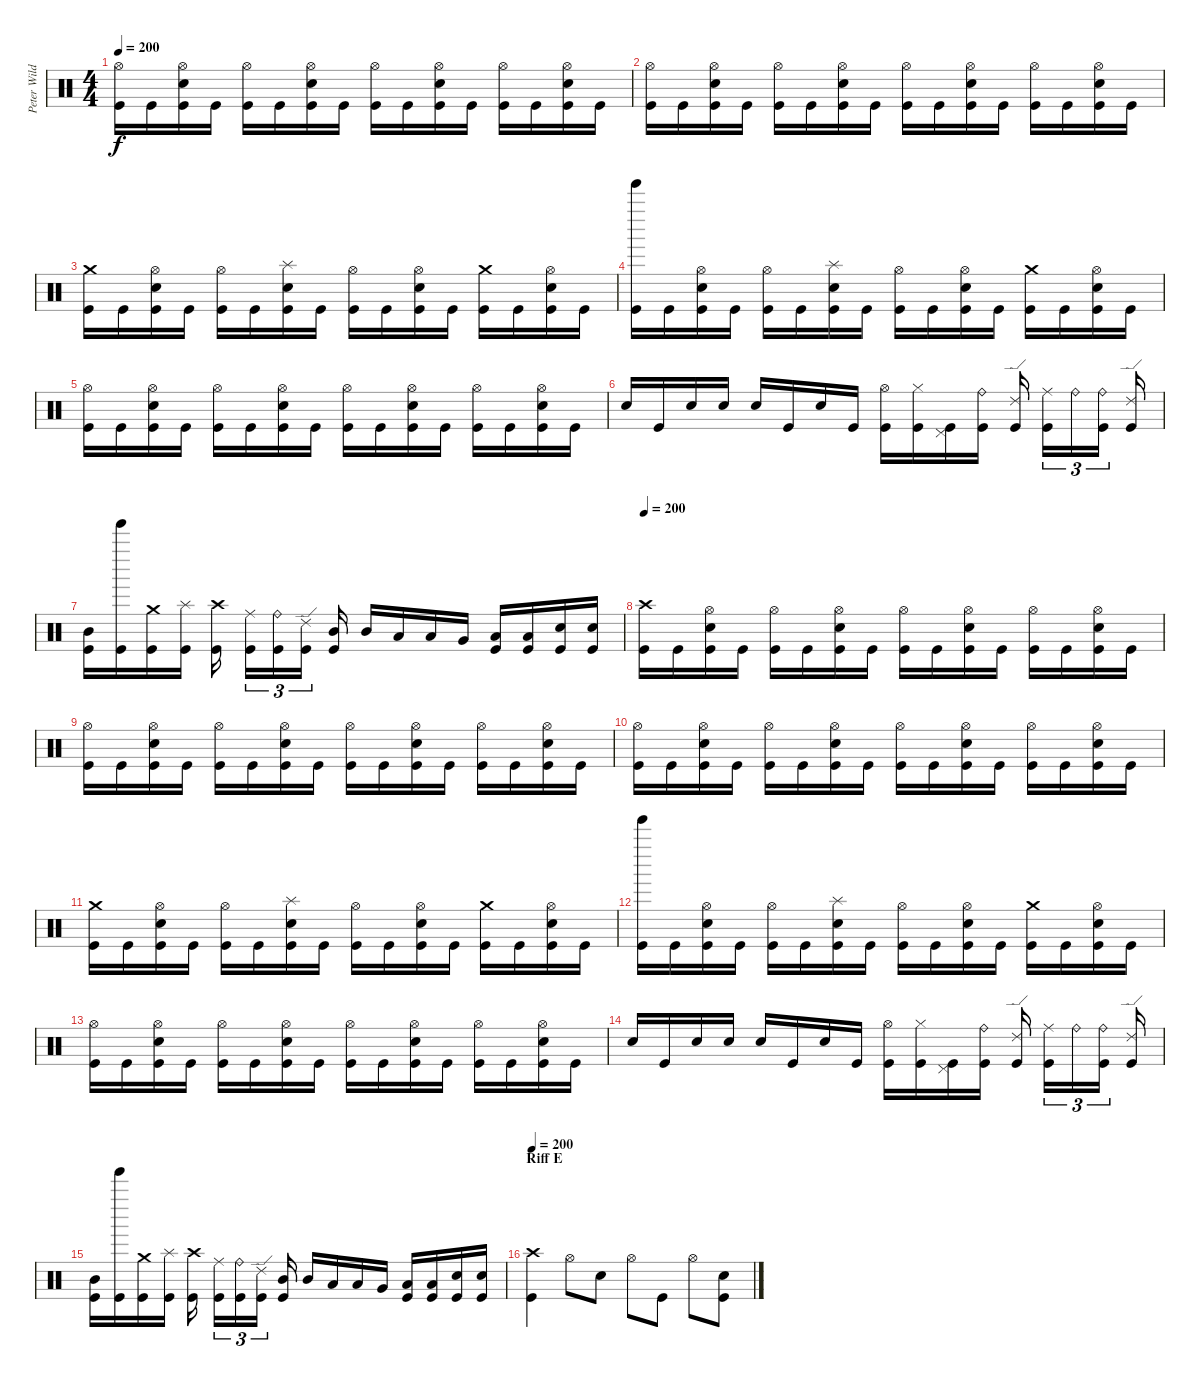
\track ("Peter Wildoer " "Peter Wild") {instrument percussion}
\staff {score}
\articulation defaults
\ts (4 4)
\tempo 200
\clef neutral
\ks c
("Hi-Hat (open)" "Kick (hit)").16{dy f} "Kick (hit)".16 ("Hi-Hat (open)" "Electric Snare (hit)" "Kick (hit)").16 "Kick (hit)".16 ("Hi-Hat (open)" "Kick (hit)").16 "Kick (hit)".16 ("Hi-Hat (open)" "Electric Snare (hit)" "Kick (hit)").16 "Kick (hit)".16 ("Hi-Hat (open)" "Kick (hit)").16 "Kick (hit)".16 ("Hi-Hat (open)" "Electric Snare (hit)" "Kick (hit)").16 "Kick (hit)".16 ("Hi-Hat (open)" "Kick (hit)").16 "Kick (hit)".16 ("Hi-Hat (open)" "Electric Snare (hit)" "Kick (hit)").16 "Kick (hit)".16 |
("Hi-Hat (open)" "Kick (hit)").16 "Kick (hit)".16 ("Hi-Hat (open)" "Electric Snare (hit)" "Kick (hit)").16 "Kick (hit)".16 ("Hi-Hat (open)" "Kick (hit)").16 "Kick (hit)".16 ("Hi-Hat (open)" "Electric Snare (hit)" "Kick (hit)").16 "Kick (hit)".16 ("Hi-Hat (open)" "Kick (hit)").16 "Kick (hit)".16 ("Hi-Hat (open)" "Electric Snare (hit)" "Kick (hit)").16 "Kick (hit)".16 ("Hi-Hat (open)" "Kick (hit)").16 "Kick (hit)".16 ("Hi-Hat (open)" "Electric Snare (hit)" "Kick (hit)").16 "Kick (hit)".16 |
("Crash medium (hit)" "Kick (hit)").16 "Kick (hit)".16 ("Hi-Hat (open)" "Electric Snare (hit)" "Kick (hit)").16 "Kick (hit)".16 ("Hi-Hat (open)" "Kick (hit)").16 "Kick (hit)".16 ("Splash (hit)" "Electric Snare (hit)" "Kick (hit)").16 "Kick (hit)".16 ("Hi-Hat (open)" "Kick (hit)").16 "Kick (hit)".16 ("Hi-Hat (open)" "Electric Snare (hit)" "Kick (hit)").16 "Kick (hit)".16 ("Crash medium (hit)" "Kick (hit)").16 "Kick (hit)".16 ("Hi-Hat (open)" "Electric Snare (hit)" "Kick (hit)").16 "Kick (hit)".16 |
("Tinkle Bell (hit)" "Kick (hit)").16 "Kick (hit)".16 ("Hi-Hat (open)" "Electric Snare (hit)" "Kick (hit)").16 "Kick (hit)".16 ("Hi-Hat (open)" "Kick (hit)").16 "Kick (hit)".16 ("Splash (hit)" "Electric Snare (hit)" "Kick (hit)").16 "Kick (hit)".16 ("Hi-Hat (open)" "Kick (hit)").16 "Kick (hit)".16 ("Hi-Hat (open)" "Electric Snare (hit)" "Kick (hit)").16 "Kick (hit)".16 ("Crash medium (hit)" "Kick (hit)").16 "Kick (hit)".16 ("Hi-Hat (open)" "Electric Snare (hit)" "Kick (hit)").16 "Kick (hit)".16 |
("Hi-Hat (open)" "Kick (hit)").16 "Kick (hit)".16 ("Hi-Hat (open)" "Electric Snare (hit)" "Kick (hit)").16 "Kick (hit)".16 ("Hi-Hat (open)" "Kick (hit)").16 "Kick (hit)".16 ("Hi-Hat (open)" "Electric Snare (hit)" "Kick (hit)").16 "Kick (hit)".16 ("Hi-Hat (open)" "Kick (hit)").16 "Kick (hit)".16 ("Hi-Hat (open)" "Electric Snare (hit)" "Kick (hit)").16 "Kick (hit)".16 ("Hi-Hat (open)" "Kick (hit)").16 "Kick (hit)".16 ("Hi-Hat (open)" "Electric Snare (hit)" "Kick (hit)").16 "Kick (hit)".16 |
"Electric Snare (hit)".16 "Kick (hit)".16 "Electric Snare (hit)".16 "Electric Snare (hit)".16 "Electric Snare (hit)".16 "Kick (hit)".16 "Electric Snare (hit)".16 "Kick (hit)".16 ("Hi-Hat (open)" "Kick (hit)").16 ("Hi-Hat (closed)" "Kick (hit)").16 ("Pedal Hi-Hat (hit)" "Kick (hit)").16 ("Ride (bell)" "Kick (hit)").16 ("Ride (edge) 2" "Kick (hit)").16 ("Ride (middle)" "Kick (hit)").16{tu (3 2)} "Ride (bell)".16{tu (3 2)} ("Ride (bell)" "Kick (hit)").16{tu (3 2)} ("Ride (edge) 2" "Kick (hit)").16 |
("Mid Tom (hit)" "Kick (hit)").16 ("Tinkle Bell (hit)" "Kick (hit)").16 ("Crash medium (hit)" "Kick (hit)").16 ("Splash (hit)" "Kick (hit)").16 ("Crash high (hit)" "Kick (hit)").16 ("Ride (middle)" "Kick (hit)").16{tu (3 2)} ("Ride (bell)" "Kick (hit)").16{tu (3 2)} ("Ride (edge) 2" "Kick (hit)").16{tu (3 2)} ("Mid Tom (hit)" "Kick (hit)").16 "Mid Tom (hit)".16 "Low Tom (hit)".16 "Low Tom (hit)".16 "Very Low Tom (hit)".16 ("Low Floor Tom (hit)" "Kick (hit)").16 ("Low Floor Tom (hit)" "Kick (hit)").16 ("Electric Snare (hit)" "Kick (hit)").16 ("Electric Snare (hit)" "Kick (hit)").16 |
\tempo 200
("Crash high (hit)" "Kick (hit)").16 "Kick (hit)".16 ("Hi-Hat (open)" "Electric Snare (hit)" "Kick (hit)").16 "Kick (hit)".16 ("Hi-Hat (open)" "Kick (hit)").16 "Kick (hit)".16 ("Hi-Hat (open)" "Electric Snare (hit)" "Kick (hit)").16 "Kick (hit)".16 ("Hi-Hat (open)" "Kick (hit)").16 "Kick (hit)".16 ("Hi-Hat (open)" "Electric Snare (hit)" "Kick (hit)").16 "Kick (hit)".16 ("Hi-Hat (open)" "Kick (hit)").16 "Kick (hit)".16 ("Hi-Hat (open)" "Electric Snare (hit)" "Kick (hit)").16 "Kick (hit)".16 |
("Hi-Hat (open)" "Kick (hit)").16 "Kick (hit)".16 ("Hi-Hat (open)" "Electric Snare (hit)" "Kick (hit)").16 "Kick (hit)".16 ("Hi-Hat (open)" "Kick (hit)").16 "Kick (hit)".16 ("Hi-Hat (open)" "Electric Snare (hit)" "Kick (hit)").16 "Kick (hit)".16 ("Hi-Hat (open)" "Kick (hit)").16 "Kick (hit)".16 ("Hi-Hat (open)" "Electric Snare (hit)" "Kick (hit)").16 "Kick (hit)".16 ("Hi-Hat (open)" "Kick (hit)").16 "Kick (hit)".16 ("Hi-Hat (open)" "Electric Snare (hit)" "Kick (hit)").16 "Kick (hit)".16 |
("Hi-Hat (open)" "Kick (hit)").16 "Kick (hit)".16 ("Hi-Hat (open)" "Electric Snare (hit)" "Kick (hit)").16 "Kick (hit)".16 ("Hi-Hat (open)" "Kick (hit)").16 "Kick (hit)".16 ("Hi-Hat (open)" "Electric Snare (hit)" "Kick (hit)").16 "Kick (hit)".16 ("Hi-Hat (open)" "Kick (hit)").16 "Kick (hit)".16 ("Hi-Hat (open)" "Electric Snare (hit)" "Kick (hit)").16 "Kick (hit)".16 ("Hi-Hat (open)" "Kick (hit)").16 "Kick (hit)".16 ("Hi-Hat (open)" "Electric Snare (hit)" "Kick (hit)").16 "Kick (hit)".16 |
("Crash medium (hit)" "Kick (hit)").16 "Kick (hit)".16 ("Hi-Hat (open)" "Electric Snare (hit)" "Kick (hit)").16 "Kick (hit)".16 ("Hi-Hat (open)" "Kick (hit)").16 "Kick (hit)".16 ("Splash (hit)" "Electric Snare (hit)" "Kick (hit)").16 "Kick (hit)".16 ("Hi-Hat (open)" "Kick (hit)").16 "Kick (hit)".16 ("Hi-Hat (open)" "Electric Snare (hit)" "Kick (hit)").16 "Kick (hit)".16 ("Crash medium (hit)" "Kick (hit)").16 "Kick (hit)".16 ("Hi-Hat (open)" "Electric Snare (hit)" "Kick (hit)").16 "Kick (hit)".16 |
("Tinkle Bell (hit)" "Kick (hit)").16 "Kick (hit)".16 ("Hi-Hat (open)" "Electric Snare (hit)" "Kick (hit)").16 "Kick (hit)".16 ("Hi-Hat (open)" "Kick (hit)").16 "Kick (hit)".16 ("Splash (hit)" "Electric Snare (hit)" "Kick (hit)").16 "Kick (hit)".16 ("Hi-Hat (open)" "Kick (hit)").16 "Kick (hit)".16 ("Hi-Hat (open)" "Electric Snare (hit)" "Kick (hit)").16 "Kick (hit)".16 ("Crash medium (hit)" "Kick (hit)").16 "Kick (hit)".16 ("Hi-Hat (open)" "Electric Snare (hit)" "Kick (hit)").16 "Kick (hit)".16 |
("Hi-Hat (open)" "Kick (hit)").16 "Kick (hit)".16 ("Hi-Hat (open)" "Electric Snare (hit)" "Kick (hit)").16 "Kick (hit)".16 ("Hi-Hat (open)" "Kick (hit)").16 "Kick (hit)".16 ("Hi-Hat (open)" "Electric Snare (hit)" "Kick (hit)").16 "Kick (hit)".16 ("Hi-Hat (open)" "Kick (hit)").16 "Kick (hit)".16 ("Hi-Hat (open)" "Electric Snare (hit)" "Kick (hit)").16 "Kick (hit)".16 ("Hi-Hat (open)" "Kick (hit)").16 "Kick (hit)".16 ("Hi-Hat (open)" "Electric Snare (hit)" "Kick (hit)").16 "Kick (hit)".16 |
"Electric Snare (hit)".16 "Kick (hit)".16 "Electric Snare (hit)".16 "Electric Snare (hit)".16 "Electric Snare (hit)".16 "Kick (hit)".16 "Electric Snare (hit)".16 "Kick (hit)".16 ("Hi-Hat (open)" "Kick (hit)").16 ("Hi-Hat (closed)" "Kick (hit)").16 ("Pedal Hi-Hat (hit)" "Kick (hit)").16 ("Ride (bell)" "Kick (hit)").16 ("Ride (edge) 2" "Kick (hit)").16 ("Ride (middle)" "Kick (hit)").16{tu (3 2)} "Ride (bell)".16{tu (3 2)} ("Ride (bell)" "Kick (hit)").16{tu (3 2)} ("Ride (edge) 2" "Kick (hit)").16 |
("Mid Tom (hit)" "Kick (hit)").16 ("Tinkle Bell (hit)" "Kick (hit)").16 ("Crash medium (hit)" "Kick (hit)").16 ("Splash (hit)" "Kick (hit)").16 ("Crash high (hit)" "Kick (hit)").16 ("Ride (middle)" "Kick (hit)").16{tu (3 2)} ("Ride (bell)" "Kick (hit)").16{tu (3 2)} ("Ride (edge) 2" "Kick (hit)").16{tu (3 2)} ("Mid Tom (hit)" "Kick (hit)").16 "Mid Tom (hit)".16 "Low Tom (hit)".16 "Low Tom (hit)".16 "Very Low Tom (hit)".16 ("Low Floor Tom (hit)" "Kick (hit)").16 ("Low Floor Tom (hit)" "Kick (hit)").16 ("Electric Snare (hit)" "Kick (hit)").16 ("Electric Snare (hit)" "Kick (hit)").16 |
\section ("" "Riff E")
\tempo 200
("Crash high (hit)" "Kick (hit)").4 "Hi-Hat (open)".8 "Electric Snare (hit)".8 "Hi-Hat (open)".8 "Kick (hit)".8 "Hi-Hat (open)".8 ("Electric Snare (hit)" "Kick (hit)").8
